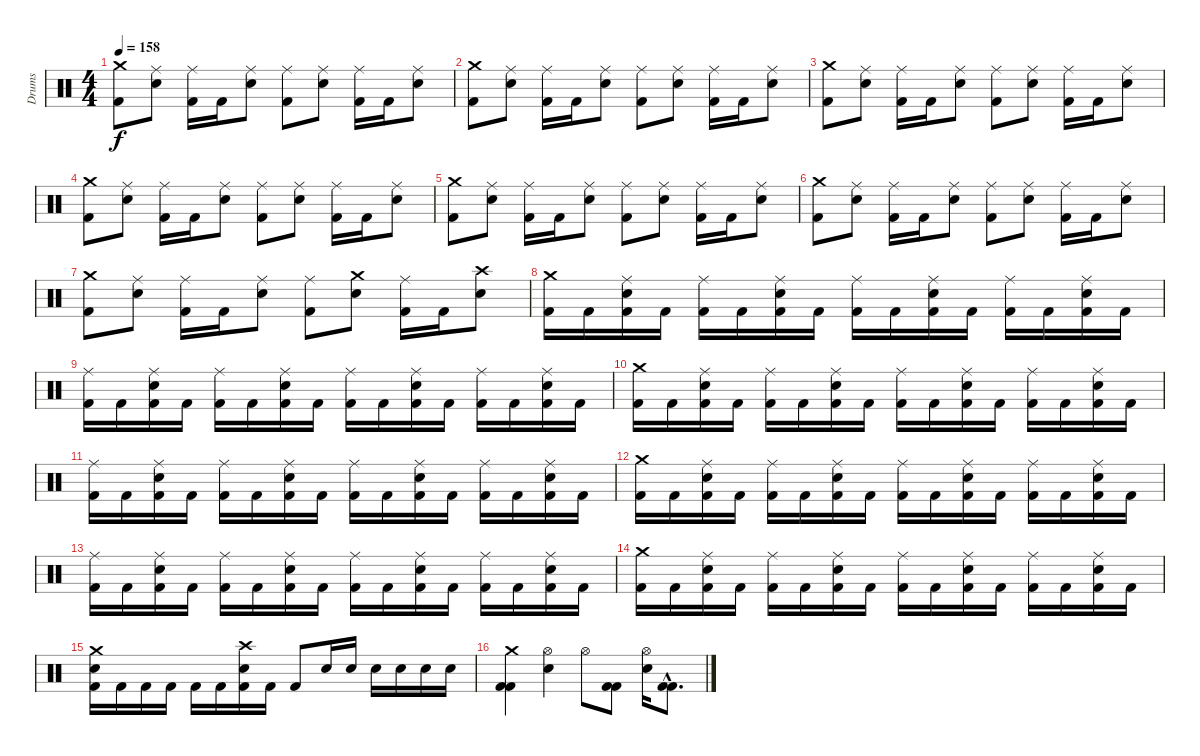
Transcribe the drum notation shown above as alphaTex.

\track ("Drums" "Drums") {instrument percussion}
\staff {score}
\articulation defaults
\ts (4 4)
\tempo 158
\clef neutral
\ks c
("Crash medium (hit)" "Kick (hit) 2").8{dy f} ("Ride (middle)" "Electric Snare (hit)").8 ("Ride (middle)" "Kick (hit) 2").16 "Kick (hit) 2".16 ("Ride (middle)" "Electric Snare (hit)").8 ("Ride (middle)" "Kick (hit) 2").8 ("Ride (middle)" "Electric Snare (hit)").8 ("Ride (middle)" "Kick (hit) 2").16 "Kick (hit) 2".16 ("Ride (middle)" "Electric Snare (hit)").8 |
("Crash medium (hit)" "Kick (hit) 2").8 ("Ride (middle)" "Electric Snare (hit)").8 ("Ride (middle)" "Kick (hit) 2").16 "Kick (hit) 2".16 ("Ride (middle)" "Electric Snare (hit)").8 ("Ride (middle)" "Kick (hit) 2").8 ("Ride (middle)" "Electric Snare (hit)").8 ("Ride (middle)" "Kick (hit) 2").16 "Kick (hit) 2".16 ("Ride (middle)" "Electric Snare (hit)").8 |
("Crash medium (hit)" "Kick (hit) 2").8 ("Ride (middle)" "Electric Snare (hit)").8 ("Ride (middle)" "Kick (hit) 2").16 "Kick (hit) 2".16 ("Ride (middle)" "Electric Snare (hit)").8 ("Ride (middle)" "Kick (hit) 2").8 ("Ride (middle)" "Electric Snare (hit)").8 ("Ride (middle)" "Kick (hit) 2").16 "Kick (hit) 2".16 ("Ride (middle)" "Electric Snare (hit)").8 |
("Crash medium (hit)" "Kick (hit) 2").8 ("Ride (middle)" "Electric Snare (hit)").8 ("Ride (middle)" "Kick (hit) 2").16 "Kick (hit) 2".16 ("Ride (middle)" "Electric Snare (hit)").8 ("Ride (middle)" "Kick (hit) 2").8 ("Ride (middle)" "Electric Snare (hit)").8 ("Ride (middle)" "Kick (hit) 2").16 "Kick (hit) 2".16 ("Ride (middle)" "Electric Snare (hit)").8 |
("Crash medium (hit)" "Kick (hit) 2").8 ("Ride (middle)" "Electric Snare (hit)").8 ("Ride (middle)" "Kick (hit) 2").16 "Kick (hit) 2".16 ("Ride (middle)" "Electric Snare (hit)").8 ("Ride (middle)" "Kick (hit) 2").8 ("Ride (middle)" "Electric Snare (hit)").8 ("Ride (middle)" "Kick (hit) 2").16 "Kick (hit) 2".16 ("Ride (middle)" "Electric Snare (hit)").8 |
("Crash medium (hit)" "Kick (hit) 2").8 ("Ride (middle)" "Electric Snare (hit)").8 ("Ride (middle)" "Kick (hit) 2").16 "Kick (hit) 2".16 ("Ride (middle)" "Electric Snare (hit)").8 ("Ride (middle)" "Kick (hit) 2").8 ("Ride (middle)" "Electric Snare (hit)").8 ("Ride (middle)" "Kick (hit) 2").16 "Kick (hit) 2".16 ("Ride (middle)" "Electric Snare (hit)").8 |
("Crash medium (hit)" "Kick (hit) 2").8 ("Ride (middle)" "Electric Snare (hit)").8 ("Ride (middle)" "Kick (hit) 2").16 "Kick (hit) 2".16 ("Ride (middle)" "Electric Snare (hit)").8 ("Ride (middle)" "Kick (hit) 2").8 ("Crash medium (hit)" "Electric Snare (hit)").8 ("Ride (middle)" "Kick (hit) 2").16 "Kick (hit) 2".16 ("Crash high (hit)" "Electric Snare (hit)").8 |
("Crash medium (hit)" "Kick (hit) 2").16 "Kick (hit) 2".16 ("Ride (middle)" "Electric Snare (hit)" "Kick (hit) 2").16 "Kick (hit) 2".16 ("Ride (middle)" "Kick (hit) 2").16 "Kick (hit) 2".16 ("Ride (middle)" "Electric Snare (hit)" "Kick (hit) 2").16 "Kick (hit) 2".16 ("Ride (middle)" "Kick (hit) 2").16 "Kick (hit) 2".16 ("Ride (middle)" "Electric Snare (hit)" "Kick (hit) 2").16 "Kick (hit) 2".16 ("Ride (middle)" "Kick (hit) 2").16 "Kick (hit) 2".16 ("Ride (middle)" "Electric Snare (hit)" "Kick (hit) 2").16 "Kick (hit) 2".16 |
("Ride (middle)" "Kick (hit) 2").16 "Kick (hit) 2".16 ("Ride (middle)" "Electric Snare (hit)" "Kick (hit) 2").16 "Kick (hit) 2".16 ("Ride (middle)" "Kick (hit) 2").16 "Kick (hit) 2".16 ("Ride (middle)" "Electric Snare (hit)" "Kick (hit) 2").16 "Kick (hit) 2".16 ("Ride (middle)" "Kick (hit) 2").16 "Kick (hit) 2".16 ("Ride (middle)" "Electric Snare (hit)" "Kick (hit) 2").16 "Kick (hit) 2".16 ("Ride (middle)" "Kick (hit) 2").16 "Kick (hit) 2".16 ("Ride (middle)" "Electric Snare (hit)" "Kick (hit) 2").16 "Kick (hit) 2".16 |
("Crash medium (hit)" "Kick (hit) 2").16 "Kick (hit) 2".16 ("Ride (middle)" "Electric Snare (hit)" "Kick (hit) 2").16 "Kick (hit) 2".16 ("Ride (middle)" "Kick (hit) 2").16 "Kick (hit) 2".16 ("Ride (middle)" "Electric Snare (hit)" "Kick (hit) 2").16 "Kick (hit) 2".16 ("Ride (middle)" "Kick (hit) 2").16 "Kick (hit) 2".16 ("Ride (middle)" "Electric Snare (hit)" "Kick (hit) 2").16 "Kick (hit) 2".16 ("Ride (middle)" "Kick (hit) 2").16 "Kick (hit) 2".16 ("Ride (middle)" "Electric Snare (hit)" "Kick (hit) 2").16 "Kick (hit) 2".16 |
("Ride (middle)" "Kick (hit) 2").16 "Kick (hit) 2".16 ("Ride (middle)" "Electric Snare (hit)" "Kick (hit) 2").16 "Kick (hit) 2".16 ("Ride (middle)" "Kick (hit) 2").16 "Kick (hit) 2".16 ("Ride (middle)" "Electric Snare (hit)" "Kick (hit) 2").16 "Kick (hit) 2".16 ("Ride (middle)" "Kick (hit) 2").16 "Kick (hit) 2".16 ("Ride (middle)" "Electric Snare (hit)" "Kick (hit) 2").16 "Kick (hit) 2".16 ("Ride (middle)" "Kick (hit) 2").16 "Kick (hit) 2".16 ("Ride (middle)" "Electric Snare (hit)" "Kick (hit) 2").16 "Kick (hit) 2".16 |
("Crash medium (hit)" "Kick (hit) 2").16 "Kick (hit) 2".16 ("Ride (middle)" "Electric Snare (hit)" "Kick (hit) 2").16 "Kick (hit) 2".16 ("Ride (middle)" "Kick (hit) 2").16 "Kick (hit) 2".16 ("Ride (middle)" "Electric Snare (hit)" "Kick (hit) 2").16 "Kick (hit) 2".16 ("Ride (middle)" "Kick (hit) 2").16 "Kick (hit) 2".16 ("Ride (middle)" "Electric Snare (hit)" "Kick (hit) 2").16 "Kick (hit) 2".16 ("Ride (middle)" "Kick (hit) 2").16 "Kick (hit) 2".16 ("Ride (middle)" "Electric Snare (hit)" "Kick (hit) 2").16 "Kick (hit) 2".16 |
("Ride (middle)" "Kick (hit) 2").16 "Kick (hit) 2".16 ("Ride (middle)" "Electric Snare (hit)" "Kick (hit) 2").16 "Kick (hit) 2".16 ("Ride (middle)" "Kick (hit) 2").16 "Kick (hit) 2".16 ("Ride (middle)" "Electric Snare (hit)" "Kick (hit) 2").16 "Kick (hit) 2".16 ("Ride (middle)" "Kick (hit) 2").16 "Kick (hit) 2".16 ("Ride (middle)" "Electric Snare (hit)" "Kick (hit) 2").16 "Kick (hit) 2".16 ("Ride (middle)" "Kick (hit) 2").16 "Kick (hit) 2".16 ("Ride (middle)" "Electric Snare (hit)" "Kick (hit) 2").16 "Kick (hit) 2".16 |
("Crash medium (hit)" "Kick (hit) 2").16 "Kick (hit) 2".16 ("Ride (middle)" "Electric Snare (hit)" "Kick (hit) 2").16 "Kick (hit) 2".16 ("Ride (middle)" "Kick (hit) 2").16 "Kick (hit) 2".16 ("Ride (middle)" "Electric Snare (hit)" "Kick (hit) 2").16 "Kick (hit) 2".16 ("Ride (middle)" "Kick (hit) 2").16 "Kick (hit) 2".16 ("Ride (middle)" "Electric Snare (hit)" "Kick (hit) 2").16 "Kick (hit) 2".16 ("Ride (middle)" "Kick (hit) 2").16 "Kick (hit) 2".16 ("Ride (middle)" "Electric Snare (hit)" "Kick (hit) 2").16 "Kick (hit) 2".16 |
("Crash medium (hit)" "Electric Snare (hit)" "Kick (hit) 2").16 "Kick (hit) 2".16 "Kick (hit) 2".16 "Kick (hit) 2".16 "Kick (hit) 2".16 "Kick (hit) 2".16 ("Crash high (hit)" "Electric Snare (hit)" "Kick (hit) 2").16 "Kick (hit) 2".16 "Kick (hit) 2".8 "Electric Snare (hit)".16 "Electric Snare (hit)".16 "Electric Snare (hit)".16 "Electric Snare (hit)".16 "Electric Snare (hit)".16 "Electric Snare (hit)".16 |
("Crash medium (hit)" "Kick (hit) 2" "Kick (hit) 2").4 ("Hi-Hat (open)" "Electric Snare (hit)").4 "Hi-Hat (open)".8 ("Kick (hit) 2" "Kick (hit) 2").8 ("Hi-Hat (open)" "Electric Snare (hit)").16 ("Kick (hit) 2"{hac} "Kick (hit) 2"{hac}).8{d}
